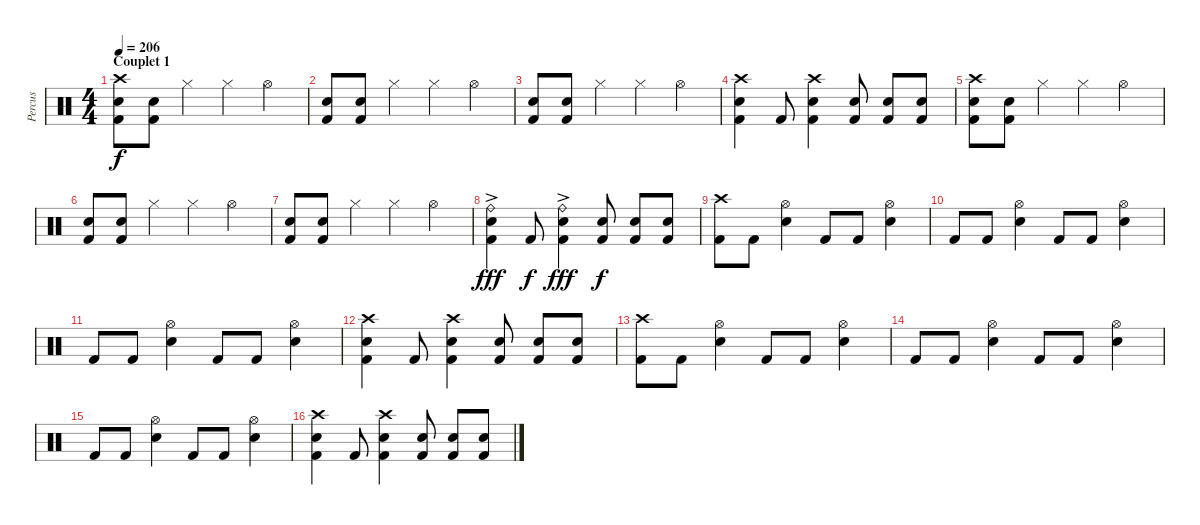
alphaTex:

\track ("Percus" "Percus") {instrument percussion}
\staff {score}
\articulation defaults
\ts (4 4)
\section ("" "Couplet 1")
\tempo 206
\clef neutral
\ks c
("Crash high (hit)" "Snare (hit) 2" "Kick (hit) 2").8{dy f} ("Snare (hit) 2" "Kick (hit) 2").8 "Hi-Hat (closed)".4 "Hi-Hat (closed)".4 "Hi-Hat (open)".4 |
("Snare (hit) 2" "Kick (hit) 2").8 ("Snare (hit) 2" "Kick (hit) 2").8 "Hi-Hat (closed)".4 "Hi-Hat (closed)".4 "Hi-Hat (open)".4 |
("Snare (hit) 2" "Kick (hit) 2").8 ("Snare (hit) 2" "Kick (hit) 2").8 "Hi-Hat (closed)".4 "Hi-Hat (closed)".4 "Hi-Hat (open)".4 |
("Crash high (hit)" "Snare (hit) 2" "Kick (hit) 2").4 "Kick (hit) 2".8 ("Crash high (hit)" "Snare (hit) 2" "Kick (hit) 2").4 ("Snare (hit) 2" "Kick (hit) 2").8 ("Snare (hit) 2" "Kick (hit) 2").8 ("Snare (hit) 2" "Kick (hit) 2").8 |
("Crash high (hit)" "Snare (hit) 2" "Kick (hit) 2").8 ("Snare (hit) 2" "Kick (hit) 2").8 "Hi-Hat (closed)".4 "Hi-Hat (closed)".4 "Hi-Hat (open)".4 |
("Snare (hit) 2" "Kick (hit) 2").8 ("Snare (hit) 2" "Kick (hit) 2").8 "Hi-Hat (closed)".4 "Hi-Hat (closed)".4 "Hi-Hat (open)".4 |
("Snare (hit) 2" "Kick (hit) 2").8 ("Snare (hit) 2" "Kick (hit) 2").8 "Hi-Hat (closed)".4 "Hi-Hat (closed)".4 "Hi-Hat (open)".4 |
("Ride (bell)"{ac} "Snare (hit) 2" "Kick (hit) 2").4{dy fff} "Kick (hit) 2".8{dy f} ("Ride (bell)"{ac} "Snare (hit) 2" "Kick (hit) 2").4{dy fff} ("Snare (hit) 2" "Kick (hit) 2").8{dy f} ("Snare (hit) 2" "Kick (hit) 2").8 ("Snare (hit) 2" "Kick (hit) 2").8 |
("Crash high (hit)" "Kick (hit) 2").8 "Kick (hit) 2".8 ("Hi-Hat (open)" "Snare (hit) 2").4 "Kick (hit) 2".8 "Kick (hit) 2".8 ("Hi-Hat (open)" "Snare (hit) 2").4 |
"Kick (hit) 2".8 "Kick (hit) 2".8 ("Hi-Hat (open)" "Snare (hit) 2").4 "Kick (hit) 2".8 "Kick (hit) 2".8 ("Hi-Hat (open)" "Snare (hit) 2").4 |
"Kick (hit) 2".8 "Kick (hit) 2".8 ("Hi-Hat (open)" "Snare (hit) 2").4 "Kick (hit) 2".8 "Kick (hit) 2".8 ("Hi-Hat (open)" "Snare (hit) 2").4 |
("Crash high (hit)" "Snare (hit) 2" "Kick (hit) 2").4 "Kick (hit) 2".8 ("Crash high (hit)" "Snare (hit) 2" "Kick (hit) 2").4 ("Snare (hit) 2" "Kick (hit) 2").8 ("Snare (hit) 2" "Kick (hit) 2").8 ("Snare (hit) 2" "Kick (hit) 2").8 |
("Crash high (hit)" "Kick (hit) 2").8 "Kick (hit) 2".8 ("Hi-Hat (open)" "Snare (hit) 2").4 "Kick (hit) 2".8 "Kick (hit) 2".8 ("Hi-Hat (open)" "Snare (hit) 2").4 |
"Kick (hit) 2".8 "Kick (hit) 2".8 ("Hi-Hat (open)" "Snare (hit) 2").4 "Kick (hit) 2".8 "Kick (hit) 2".8 ("Hi-Hat (open)" "Snare (hit) 2").4 |
"Kick (hit) 2".8 "Kick (hit) 2".8 ("Hi-Hat (open)" "Snare (hit) 2").4 "Kick (hit) 2".8 "Kick (hit) 2".8 ("Hi-Hat (open)" "Snare (hit) 2").4 |
("Crash high (hit)" "Snare (hit) 2" "Kick (hit) 2").4 "Kick (hit) 2".8 ("Crash high (hit)" "Snare (hit) 2" "Kick (hit) 2").4 ("Snare (hit) 2" "Kick (hit) 2").8 ("Snare (hit) 2" "Kick (hit) 2").8 ("Snare (hit) 2" "Kick (hit) 2").8
